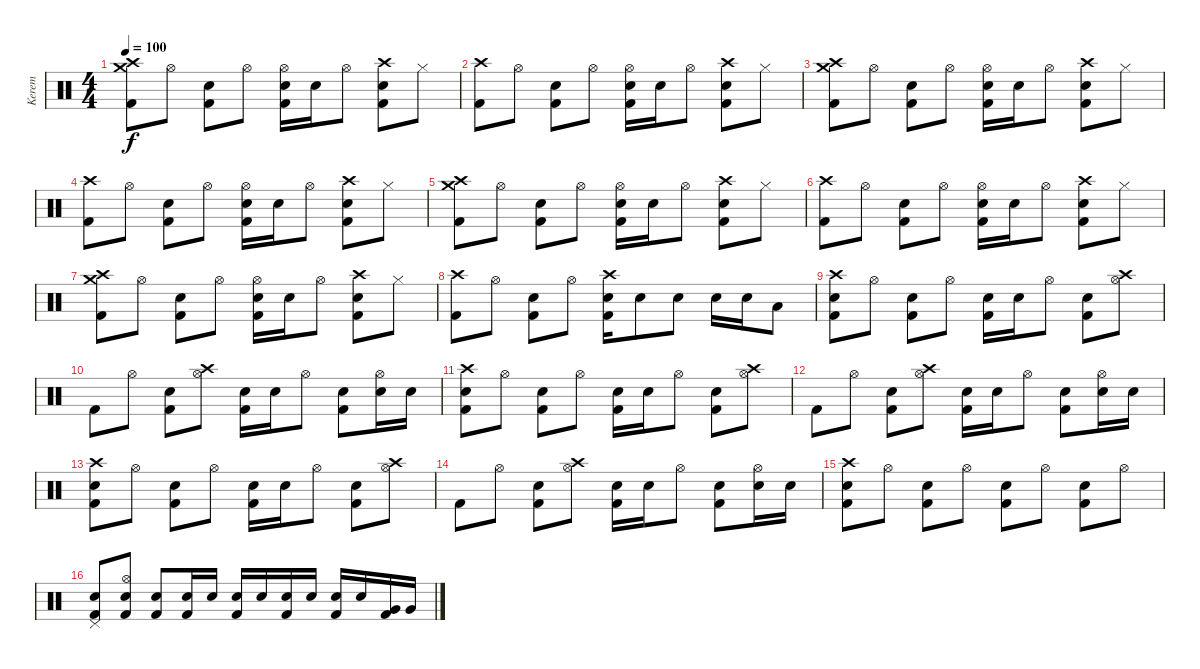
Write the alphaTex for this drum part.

\track ("Kerem" "Kerem") {instrument percussion}
\staff {score}
\articulation defaults
\ts (4 4)
\tempo 100
\clef neutral
\ks c
("Crash high (hit)" "Crash medium (hit)" "Kick (hit) 2").8{dy f} "Hi-Hat (open)".8 ("Electric Snare (hit)" "Kick (hit) 2").8 "Hi-Hat (open)".8 ("Electric Snare (hit)" "Hi-Hat (open)" "Kick (hit) 2").16 "Electric Snare (hit)".16 "Hi-Hat (open)".8 ("Crash high (hit)" "Electric Snare (hit)" "Kick (hit) 2").8 "Hi-Hat (closed)".8 |
("Crash high (hit)" "Kick (hit) 2").8 "Hi-Hat (open)".8 ("Electric Snare (hit)" "Kick (hit) 2").8 "Hi-Hat (open)".8 ("Electric Snare (hit)" "Hi-Hat (open)" "Kick (hit) 2").16 "Electric Snare (hit)".16 "Hi-Hat (open)".8 ("Crash high (hit)" "Electric Snare (hit)" "Kick (hit) 2").8 "Hi-Hat (closed)".8 |
("Crash high (hit)" "Crash medium (hit)" "Kick (hit) 2").8 "Hi-Hat (open)".8 ("Electric Snare (hit)" "Kick (hit) 2").8 "Hi-Hat (open)".8 ("Electric Snare (hit)" "Hi-Hat (open)" "Kick (hit) 2").16 "Electric Snare (hit)".16 "Hi-Hat (open)".8 ("Crash high (hit)" "Electric Snare (hit)" "Kick (hit) 2").8 "Hi-Hat (closed)".8 |
("Crash high (hit)" "Kick (hit) 2").8 "Hi-Hat (open)".8 ("Electric Snare (hit)" "Kick (hit) 2").8 "Hi-Hat (open)".8 ("Electric Snare (hit)" "Hi-Hat (open)" "Kick (hit) 2").16 "Electric Snare (hit)".16 "Hi-Hat (open)".8 ("Crash high (hit)" "Electric Snare (hit)" "Kick (hit) 2").8 "Hi-Hat (closed)".8 |
("Crash high (hit)" "Crash medium (hit)" "Kick (hit) 2").8 "Hi-Hat (open)".8 ("Electric Snare (hit)" "Kick (hit) 2").8 "Hi-Hat (open)".8 ("Electric Snare (hit)" "Hi-Hat (open)" "Kick (hit) 2").16 "Electric Snare (hit)".16 "Hi-Hat (open)".8 ("Crash high (hit)" "Electric Snare (hit)" "Kick (hit) 2").8 "Hi-Hat (closed)".8 |
("Crash high (hit)" "Kick (hit) 2").8 "Hi-Hat (open)".8 ("Electric Snare (hit)" "Kick (hit) 2").8 "Hi-Hat (open)".8 ("Electric Snare (hit)" "Hi-Hat (open)" "Kick (hit) 2").16 "Electric Snare (hit)".16 "Hi-Hat (open)".8 ("Crash high (hit)" "Electric Snare (hit)" "Kick (hit) 2").8 "Hi-Hat (closed)".8 |
("Crash high (hit)" "Crash medium (hit)" "Kick (hit) 2").8 "Hi-Hat (open)".8 ("Electric Snare (hit)" "Kick (hit) 2").8 "Hi-Hat (open)".8 ("Electric Snare (hit)" "Hi-Hat (open)" "Kick (hit) 2").16 "Electric Snare (hit)".16 "Hi-Hat (open)".8 ("Crash high (hit)" "Electric Snare (hit)" "Kick (hit) 2").8 "Hi-Hat (closed)".8 |
("Crash high (hit)" "Kick (hit) 2").8 "Hi-Hat (open)".8 ("Electric Snare (hit)" "Kick (hit) 2").8 "Hi-Hat (open)".8 ("Crash high (hit)" "Electric Snare (hit)" "Kick (hit) 2").16 "Electric Snare (hit)".8 "Electric Snare (hit)".8 "Electric Snare (hit)".16 "Electric Snare (hit)".16 "Low Tom (hit)".8 |
("Crash high (hit)" "Electric Snare (hit)" "Kick (hit) 2").8 "Hi-Hat (open)".8 ("Electric Snare (hit)" "Kick (hit) 2").8 "Hi-Hat (open)".8 ("Electric Snare (hit)" "Kick (hit) 2").16 "Electric Snare (hit)".16 "Hi-Hat (open)".8 ("Electric Snare (hit)" "Kick (hit) 2").8 ("Crash high (hit)" "Hi-Hat (open)").8 |
"Kick (hit) 2".8 "Hi-Hat (open)".8 ("Electric Snare (hit)" "Kick (hit) 2").8 ("Crash high (hit)" "Hi-Hat (open)").8 ("Electric Snare (hit)" "Kick (hit) 2").16 "Electric Snare (hit)".16 "Hi-Hat (open)".8 ("Electric Snare (hit)" "Kick (hit) 2").8 ("Electric Snare (hit)" "Hi-Hat (open)").16 "Electric Snare (hit)".16 |
("Crash high (hit)" "Electric Snare (hit)" "Kick (hit) 2").8 "Hi-Hat (open)".8 ("Electric Snare (hit)" "Kick (hit) 2").8 "Hi-Hat (open)".8 ("Electric Snare (hit)" "Kick (hit) 2").16 "Electric Snare (hit)".16 "Hi-Hat (open)".8 ("Electric Snare (hit)" "Kick (hit) 2").8 ("Crash high (hit)" "Hi-Hat (open)").8 |
"Kick (hit) 2".8 "Hi-Hat (open)".8 ("Electric Snare (hit)" "Kick (hit) 2").8 ("Crash high (hit)" "Hi-Hat (open)").8 ("Electric Snare (hit)" "Kick (hit) 2").16 "Electric Snare (hit)".16 "Hi-Hat (open)".8 ("Electric Snare (hit)" "Kick (hit) 2").8 ("Electric Snare (hit)" "Hi-Hat (open)").16 "Electric Snare (hit)".16 |
("Crash high (hit)" "Electric Snare (hit)" "Kick (hit) 2").8 "Hi-Hat (open)".8 ("Electric Snare (hit)" "Kick (hit) 2").8 "Hi-Hat (open)".8 ("Electric Snare (hit)" "Kick (hit) 2").16 "Electric Snare (hit)".16 "Hi-Hat (open)".8 ("Electric Snare (hit)" "Kick (hit) 2").8 ("Crash high (hit)" "Hi-Hat (open)").8 |
"Kick (hit) 2".8 "Hi-Hat (open)".8 ("Electric Snare (hit)" "Kick (hit) 2").8 ("Crash high (hit)" "Hi-Hat (open)").8 ("Electric Snare (hit)" "Kick (hit) 2").16 "Electric Snare (hit)".16 "Hi-Hat (open)".8 ("Electric Snare (hit)" "Kick (hit) 2").8 ("Electric Snare (hit)" "Hi-Hat (open)").16 "Electric Snare (hit)".16 |
("Crash high (hit)" "Electric Snare (hit)" "Kick (hit) 2").8 "Hi-Hat (open)".8 ("Electric Snare (hit)" "Kick (hit) 2").8 "Hi-Hat (open)".8 ("Electric Snare (hit)" "Kick (hit) 2").8 "Hi-Hat (open)".8 ("Electric Snare (hit)" "Kick (hit) 2").8 "Hi-Hat (open)".8 |
("Pedal Hi-Hat (hit)" "Electric Snare (hit)" "Kick (hit) 2").8 ("Electric Snare (hit)" "Hi-Hat (open)" "Kick (hit) 2").8 ("Electric Snare (hit)" "Kick (hit) 2").8 ("Electric Snare (hit)" "Kick (hit) 2").16 "Electric Snare (hit)".16 ("Electric Snare (hit)" "Kick (hit) 2").16 "Electric Snare (hit)".16 ("Electric Snare (hit)" "Kick (hit) 2").16 "Electric Snare (hit)".16 ("Electric Snare (hit)" "Kick (hit) 2").16 "Electric Snare (hit)".16 ("Very Low Tom (hit)" "Kick (hit) 2").16 "Very Low Tom (hit)".16
